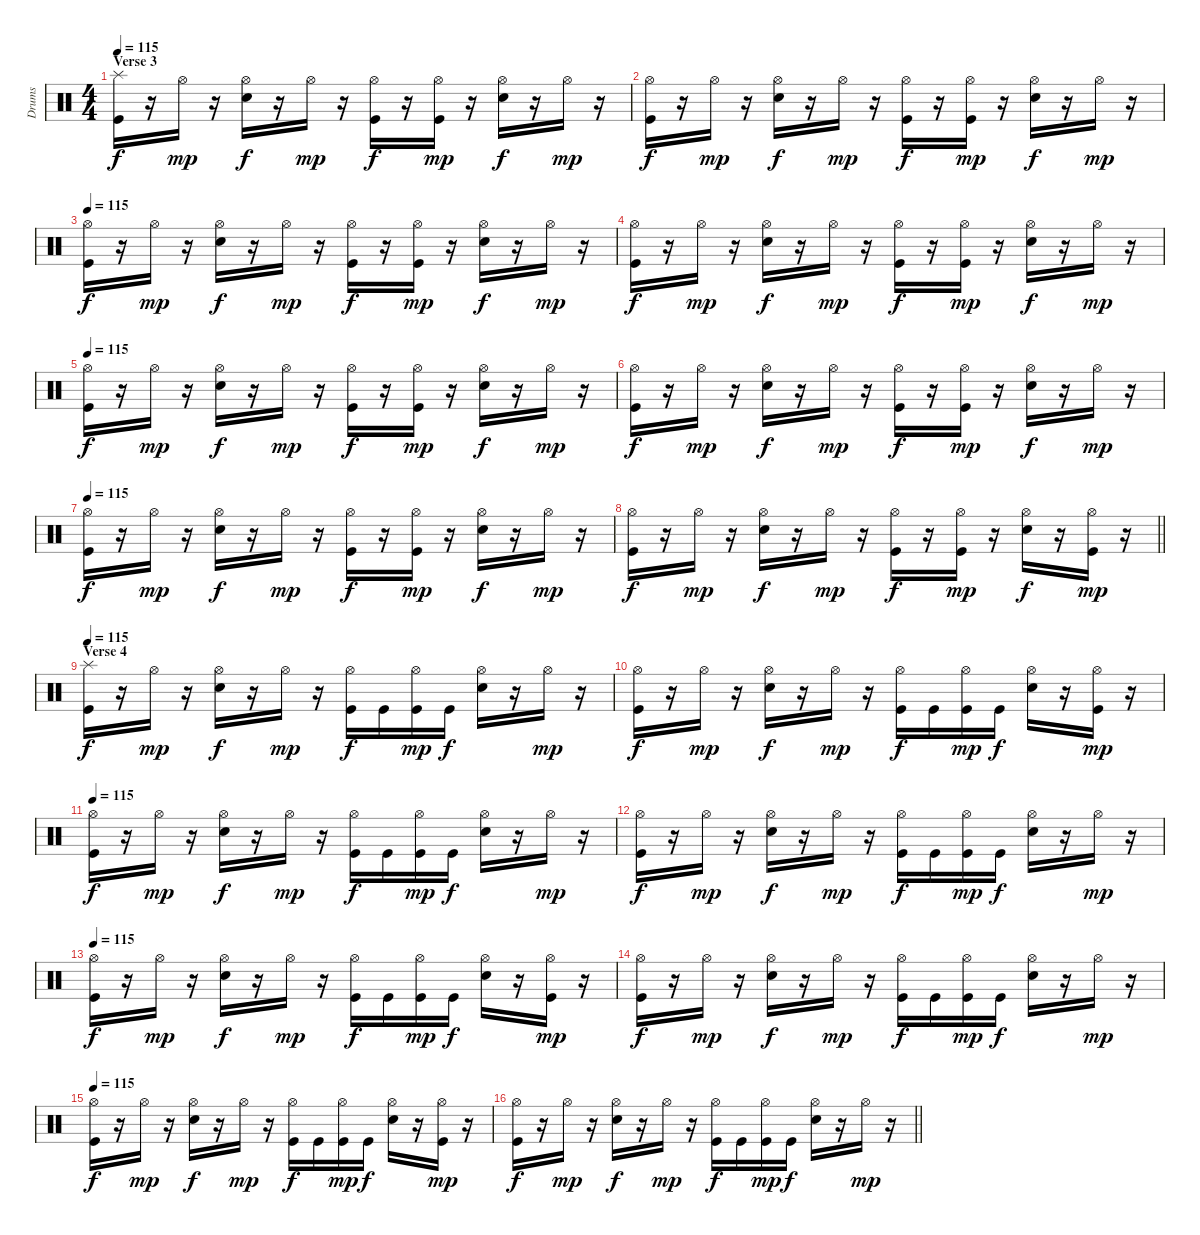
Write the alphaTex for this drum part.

\track ("Drums" "Drums") {instrument percussion}
\staff {score}
\articulation defaults
\ts (4 4)
\section ("" "Verse 3")
\tempo 115
\clef neutral
\ks c
("Splash (hit)" "Kick (hit)").16{dy f} r.16 "Hi-Hat (open)".16{dy mp} r.16 ("Hi-Hat (open)" "Electric Snare (hit)").16{dy f} r.16 "Hi-Hat (open)".16{dy mp} r.16 ("Hi-Hat (open)" "Kick (hit)").16{dy f} r.16 ("Kick (hit)" "Hi-Hat (open)").16{dy mp} r.16 ("Hi-Hat (open)" "Electric Snare (hit)").16{dy f} r.16 "Hi-Hat (open)".16{dy mp} r.16 |
("Hi-Hat (open)" "Kick (hit)").16{dy f} r.16 "Hi-Hat (open)".16{dy mp} r.16 ("Hi-Hat (open)" "Electric Snare (hit)").16{dy f} r.16 "Hi-Hat (open)".16{dy mp} r.16 ("Hi-Hat (open)" "Kick (hit)").16{dy f} r.16 ("Kick (hit)" "Hi-Hat (open)").16{dy mp} r.16 ("Hi-Hat (open)" "Electric Snare (hit)").16{dy f} r.16 "Hi-Hat (open)".16{dy mp} r.16 |
\tempo 115
("Hi-Hat (open)" "Kick (hit)").16{dy f} r.16 "Hi-Hat (open)".16{dy mp} r.16 ("Hi-Hat (open)" "Electric Snare (hit)").16{dy f} r.16 "Hi-Hat (open)".16{dy mp} r.16 ("Hi-Hat (open)" "Kick (hit)").16{dy f} r.16 ("Kick (hit)" "Hi-Hat (open)").16{dy mp} r.16 ("Hi-Hat (open)" "Electric Snare (hit)").16{dy f} r.16 "Hi-Hat (open)".16{dy mp} r.16 |
("Hi-Hat (open)" "Kick (hit)").16{dy f} r.16 "Hi-Hat (open)".16{dy mp} r.16 ("Hi-Hat (open)" "Electric Snare (hit)").16{dy f} r.16 "Hi-Hat (open)".16{dy mp} r.16 ("Hi-Hat (open)" "Kick (hit)").16{dy f} r.16 ("Kick (hit)" "Hi-Hat (open)").16{dy mp} r.16 ("Hi-Hat (open)" "Electric Snare (hit)").16{dy f} r.16 "Hi-Hat (open)".16{dy mp} r.16 |
\tempo 115
("Hi-Hat (open)" "Kick (hit)").16{dy f} r.16 "Hi-Hat (open)".16{dy mp} r.16 ("Hi-Hat (open)" "Electric Snare (hit)").16{dy f} r.16 "Hi-Hat (open)".16{dy mp} r.16 ("Hi-Hat (open)" "Kick (hit)").16{dy f} r.16 ("Kick (hit)" "Hi-Hat (open)").16{dy mp} r.16 ("Hi-Hat (open)" "Electric Snare (hit)").16{dy f} r.16 "Hi-Hat (open)".16{dy mp} r.16 |
("Hi-Hat (open)" "Kick (hit)").16{dy f} r.16 "Hi-Hat (open)".16{dy mp} r.16 ("Hi-Hat (open)" "Electric Snare (hit)").16{dy f} r.16 "Hi-Hat (open)".16{dy mp} r.16 ("Hi-Hat (open)" "Kick (hit)").16{dy f} r.16 ("Kick (hit)" "Hi-Hat (open)").16{dy mp} r.16 ("Hi-Hat (open)" "Electric Snare (hit)").16{dy f} r.16 "Hi-Hat (open)".16{dy mp} r.16 |
\tempo 115
("Hi-Hat (open)" "Kick (hit)").16{dy f} r.16 "Hi-Hat (open)".16{dy mp} r.16 ("Hi-Hat (open)" "Electric Snare (hit)").16{dy f} r.16 "Hi-Hat (open)".16{dy mp} r.16 ("Hi-Hat (open)" "Kick (hit)").16{dy f} r.16 ("Kick (hit)" "Hi-Hat (open)").16{dy mp} r.16 ("Hi-Hat (open)" "Electric Snare (hit)").16{dy f} r.16 "Hi-Hat (open)".16{dy mp} r.16 |
\barLineRight lightlight
("Hi-Hat (open)" "Kick (hit)").16{dy f} r.16 "Hi-Hat (open)".16{dy mp} r.16 ("Hi-Hat (open)" "Electric Snare (hit)").16{dy f} r.16 "Hi-Hat (open)".16{dy mp} r.16 ("Hi-Hat (open)" "Kick (hit)").16{dy f} r.16 ("Kick (hit)" "Hi-Hat (open)").16{dy mp} r.16 ("Hi-Hat (open)" "Electric Snare (hit)").16{dy f} r.16 ("Kick (hit)" "Hi-Hat (open)").16{dy mp} r.16 |
\section ("" "Verse 4")
\tempo 115
("Splash (hit)" "Kick (hit)").16{dy f} r.16 "Hi-Hat (open)".16{dy mp} r.16 ("Hi-Hat (open)" "Electric Snare (hit)").16{dy f} r.16 "Hi-Hat (open)".16{dy mp} r.16 ("Hi-Hat (open)" "Kick (hit)").16{dy f} "Kick (hit)".16 ("Kick (hit)" "Hi-Hat (open)").16{dy mp} "Kick (hit)".16{dy f} ("Hi-Hat (open)" "Electric Snare (hit)").16 r.16 "Hi-Hat (open)".16{dy mp} r.16 |
("Hi-Hat (open)" "Kick (hit)").16{dy f} r.16 "Hi-Hat (open)".16{dy mp} r.16 ("Hi-Hat (open)" "Electric Snare (hit)").16{dy f} r.16 "Hi-Hat (open)".16{dy mp} r.16 ("Hi-Hat (open)" "Kick (hit)").16{dy f} "Kick (hit)".16 ("Kick (hit)" "Hi-Hat (open)").16{dy mp} "Kick (hit)".16{dy f} ("Hi-Hat (open)" "Electric Snare (hit)").16 r.16 ("Kick (hit)" "Hi-Hat (open)").16{dy mp} r.16 |
\tempo 115
("Hi-Hat (open)" "Kick (hit)").16{dy f} r.16 "Hi-Hat (open)".16{dy mp} r.16 ("Hi-Hat (open)" "Electric Snare (hit)").16{dy f} r.16 "Hi-Hat (open)".16{dy mp} r.16 ("Hi-Hat (open)" "Kick (hit)").16{dy f} "Kick (hit)".16 ("Kick (hit)" "Hi-Hat (open)").16{dy mp} "Kick (hit)".16{dy f} ("Hi-Hat (open)" "Electric Snare (hit)").16 r.16 "Hi-Hat (open)".16{dy mp} r.16 |
("Hi-Hat (open)" "Kick (hit)").16{dy f} r.16 "Hi-Hat (open)".16{dy mp} r.16 ("Hi-Hat (open)" "Electric Snare (hit)").16{dy f} r.16 "Hi-Hat (open)".16{dy mp} r.16 ("Hi-Hat (open)" "Kick (hit)").16{dy f} "Kick (hit)".16 ("Kick (hit)" "Hi-Hat (open)").16{dy mp} "Kick (hit)".16{dy f} ("Hi-Hat (open)" "Electric Snare (hit)").16 r.16 "Hi-Hat (open)".16{dy mp} r.16 |
\tempo 115
("Hi-Hat (open)" "Kick (hit)").16{dy f} r.16 "Hi-Hat (open)".16{dy mp} r.16 ("Hi-Hat (open)" "Electric Snare (hit)").16{dy f} r.16 "Hi-Hat (open)".16{dy mp} r.16 ("Hi-Hat (open)" "Kick (hit)").16{dy f} "Kick (hit)".16 ("Kick (hit)" "Hi-Hat (open)").16{dy mp} "Kick (hit)".16{dy f} ("Hi-Hat (open)" "Electric Snare (hit)").16 r.16 ("Kick (hit)" "Hi-Hat (open)").16{dy mp} r.16 |
("Hi-Hat (open)" "Kick (hit)").16{dy f} r.16 "Hi-Hat (open)".16{dy mp} r.16 ("Hi-Hat (open)" "Electric Snare (hit)").16{dy f} r.16 "Hi-Hat (open)".16{dy mp} r.16 ("Hi-Hat (open)" "Kick (hit)").16{dy f} "Kick (hit)".16 ("Kick (hit)" "Hi-Hat (open)").16{dy mp} "Kick (hit)".16{dy f} ("Hi-Hat (open)" "Electric Snare (hit)").16 r.16 "Hi-Hat (open)".16{dy mp} r.16 |
\tempo 115
("Hi-Hat (open)" "Kick (hit)").16{dy f} r.16 "Hi-Hat (open)".16{dy mp} r.16 ("Hi-Hat (open)" "Electric Snare (hit)").16{dy f} r.16 "Hi-Hat (open)".16{dy mp} r.16 ("Hi-Hat (open)" "Kick (hit)").16{dy f} "Kick (hit)".16 ("Kick (hit)" "Hi-Hat (open)").16{dy mp} "Kick (hit)".16{dy f} ("Hi-Hat (open)" "Electric Snare (hit)").16 r.16 ("Kick (hit)" "Hi-Hat (open)").16{dy mp} r.16 |
\barLineRight lightlight
("Hi-Hat (open)" "Kick (hit)").16{dy f} r.16 "Hi-Hat (open)".16{dy mp} r.16 ("Hi-Hat (open)" "Electric Snare (hit)").16{dy f} r.16 "Hi-Hat (open)".16{dy mp} r.16 ("Hi-Hat (open)" "Kick (hit)").16{dy f} "Kick (hit)".16 ("Kick (hit)" "Hi-Hat (open)").16{dy mp} "Kick (hit)".16{dy f} ("Hi-Hat (open)" "Electric Snare (hit)").16 r.16 "Hi-Hat (open)".16{dy mp} r.16
